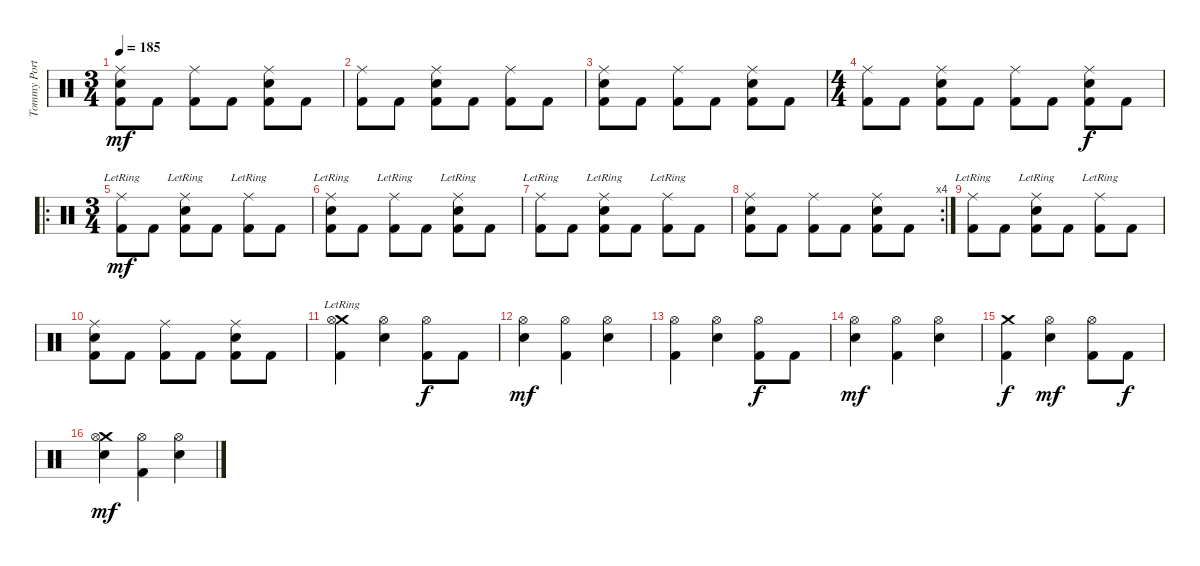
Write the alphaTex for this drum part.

\track ("Tommy Portino" "Tommy Port") {instrument percussion}
\staff {score}
\articulation defaults
\ts (3 4)
\tempo 185
\clef neutral
\ks c
("Ride (middle)" "Snare (hit) 2" "Kick (hit) 2").8{dy mf} "Kick (hit) 2".8 ("Ride (middle)" "Kick (hit) 2").8 "Kick (hit) 2".8 ("Ride (middle)" "Snare (hit) 2" "Kick (hit) 2").8 "Kick (hit) 2".8 |
("Ride (middle)" "Kick (hit) 2").8 "Kick (hit) 2".8 ("Ride (middle)" "Snare (hit) 2" "Kick (hit) 2").8 "Kick (hit) 2".8 ("Ride (middle)" "Kick (hit) 2").8 "Kick (hit) 2".8 |
("Ride (middle)" "Snare (hit) 2" "Kick (hit) 2").8 "Kick (hit) 2".8 ("Ride (middle)" "Kick (hit) 2").8 "Kick (hit) 2".8 ("Ride (middle)" "Snare (hit) 2" "Kick (hit) 2").8 "Kick (hit) 2".8 |
\ts (4 4)
("Ride (middle)" "Kick (hit) 2").8 "Kick (hit) 2".8 ("Ride (middle)" "Snare (hit) 2" "Kick (hit) 2").8 "Kick (hit) 2".8 ("Ride (middle)" "Kick (hit) 2").8 "Kick (hit) 2".8 ("Ride (middle)" "Snare (hit) 2" "Kick (hit) 2").8{dy f} "Kick (hit) 2".8 |
\ro
\ts (3 4)
("Ride (middle)"{lr} "Kick (hit) 2").8{dy mf} "Kick (hit) 2".8 ("Ride (middle)"{lr} "Snare (hit) 2" "Kick (hit) 2").8 "Kick (hit) 2".8 ("Ride (middle)"{lr} "Kick (hit) 2").8 "Kick (hit) 2".8 |
("Ride (middle)"{lr} "Snare (hit) 2" "Kick (hit) 2").8 "Kick (hit) 2".8 ("Ride (middle)"{lr} "Kick (hit) 2").8 "Kick (hit) 2".8 ("Ride (middle)"{lr} "Snare (hit) 2" "Kick (hit) 2").8 "Kick (hit) 2".8 |
("Ride (middle)"{lr} "Kick (hit) 2").8 "Kick (hit) 2".8 ("Ride (middle)"{lr} "Snare (hit) 2" "Kick (hit) 2").8 "Kick (hit) 2".8 ("Ride (middle)"{lr} "Kick (hit) 2").8 "Kick (hit) 2".8 |
\rc 4
("Ride (middle)" "Snare (hit) 2" "Kick (hit) 2").8 "Kick (hit) 2".8 ("Ride (middle)" "Kick (hit) 2").8 "Kick (hit) 2".8 ("Ride (middle)" "Snare (hit) 2" "Kick (hit) 2").8 "Kick (hit) 2".8 |
("Ride (middle)"{lr} "Kick (hit) 2").8 "Kick (hit) 2".8 ("Ride (middle)"{lr} "Snare (hit) 2" "Kick (hit) 2").8 "Kick (hit) 2".8 ("Ride (middle)"{lr} "Kick (hit) 2").8 "Kick (hit) 2".8 |
("Ride (middle)" "Snare (hit) 2" "Kick (hit) 2").8 "Kick (hit) 2".8 ("Ride (middle)" "Kick (hit) 2").8 "Kick (hit) 2".8 ("Ride (middle)" "Snare (hit) 2" "Kick (hit) 2").8 "Kick (hit) 2".8 |
("Crash medium (hit)"{lr} "Hi-Hat (open)" "Kick (hit) 2").4 ("Hi-Hat (open)" "Snare (hit) 2").4 ("Hi-Hat (open)" "Kick (hit) 2").8{dy f} "Kick (hit) 2".8 |
("Hi-Hat (open)" "Snare (hit) 2").4{dy mf} ("Hi-Hat (open)" "Kick (hit) 2").4 ("Hi-Hat (open)" "Snare (hit) 2").4 |
("Hi-Hat (open)" "Kick (hit) 2").4 ("Hi-Hat (open)" "Snare (hit) 2").4 ("Hi-Hat (open)" "Kick (hit) 2").8{dy f} "Kick (hit) 2".8 |
("Hi-Hat (open)" "Snare (hit) 2").4{dy mf} ("Hi-Hat (open)" "Kick (hit) 2").4 ("Hi-Hat (open)" "Snare (hit) 2").4 |
("Crash medium (hit)" "Kick (hit) 2").4{dy f} ("Snare (hit) 2" "Hi-Hat (open)").4{dy mf} ("Hi-Hat (open)" "Kick (hit) 2").8 "Kick (hit) 2".8{dy f} |
("Crash medium (hit)" "Snare (hit) 2" "Hi-Hat (open)").4{dy mf} ("Hi-Hat (open)" "Kick (hit) 2").4 ("Snare (hit) 2" "Hi-Hat (open)").4
